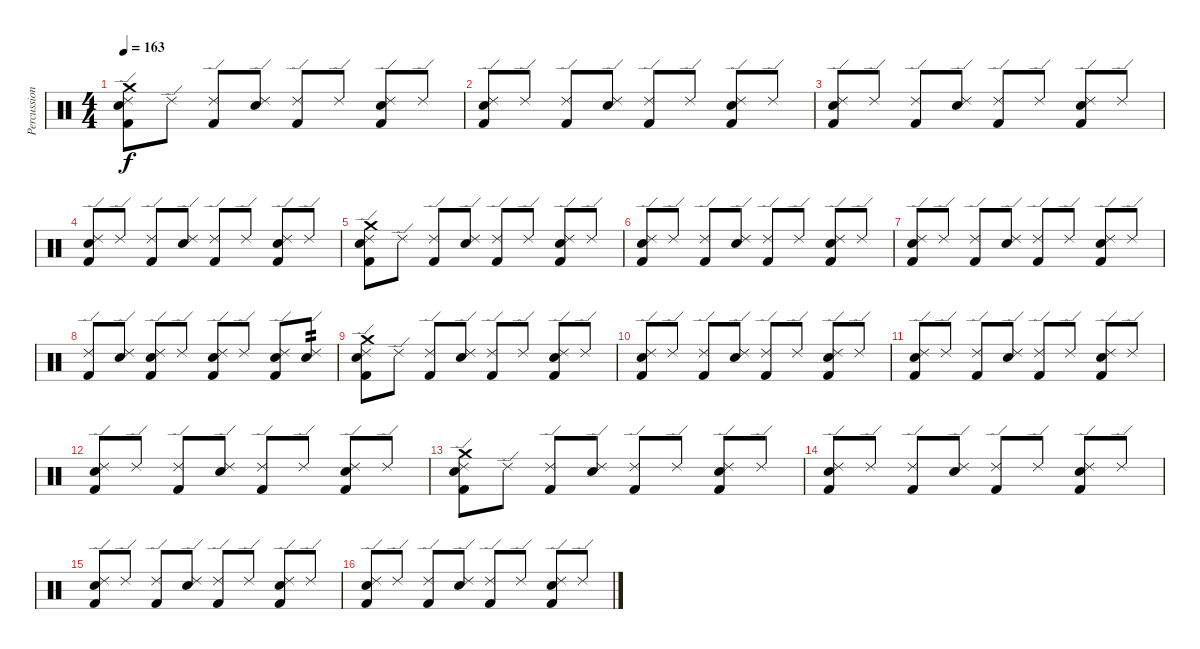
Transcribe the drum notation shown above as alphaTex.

\track ("Percussion" "Percussion") {instrument percussion}
\staff {score}
\articulation defaults
\ts (4 4)
\tempo 163
\clef neutral
\ks c
("Crash medium (hit)" "Ride (edge) 2" "Snare (hit) 2" "Kick (hit) 2").8{dy f} "Ride (edge) 2".8 ("Ride (edge) 2" "Kick (hit) 2").8 ("Ride (edge) 2" "Snare (hit) 2").8 ("Ride (edge) 2" "Kick (hit) 2").8 "Ride (edge) 2".8 ("Ride (edge) 2" "Snare (hit) 2" "Kick (hit) 2").8 "Ride (edge) 2".8 |
("Ride (edge) 2" "Snare (hit) 2" "Kick (hit) 2").8 "Ride (edge) 2".8 ("Ride (edge) 2" "Kick (hit) 2").8 ("Ride (edge) 2" "Snare (hit) 2").8 ("Ride (edge) 2" "Kick (hit) 2").8 "Ride (edge) 2".8 ("Ride (edge) 2" "Snare (hit) 2" "Kick (hit) 2").8 "Ride (edge) 2".8 |
("Ride (edge) 2" "Snare (hit) 2" "Kick (hit) 2").8 "Ride (edge) 2".8 ("Ride (edge) 2" "Kick (hit) 2").8 ("Ride (edge) 2" "Snare (hit) 2").8 ("Ride (edge) 2" "Kick (hit) 2").8 "Ride (edge) 2".8 ("Ride (edge) 2" "Snare (hit) 2" "Kick (hit) 2").8 "Ride (edge) 2".8 |
("Ride (edge) 2" "Snare (hit) 2" "Kick (hit) 2").8 "Ride (edge) 2".8 ("Ride (edge) 2" "Kick (hit) 2").8 ("Ride (edge) 2" "Snare (hit) 2").8 ("Ride (edge) 2" "Kick (hit) 2").8 "Ride (edge) 2".8 ("Ride (edge) 2" "Snare (hit) 2" "Kick (hit) 2").8 "Ride (edge) 2".8 |
("Crash medium (hit)" "Ride (edge) 2" "Snare (hit) 2" "Kick (hit) 2").8 "Ride (edge) 2".8 ("Ride (edge) 2" "Kick (hit) 2").8 ("Ride (edge) 2" "Snare (hit) 2").8 ("Ride (edge) 2" "Kick (hit) 2").8 "Ride (edge) 2".8 ("Ride (edge) 2" "Snare (hit) 2" "Kick (hit) 2").8 "Ride (edge) 2".8 |
("Ride (edge) 2" "Snare (hit) 2" "Kick (hit) 2").8 "Ride (edge) 2".8 ("Ride (edge) 2" "Kick (hit) 2").8 ("Ride (edge) 2" "Snare (hit) 2").8 ("Ride (edge) 2" "Kick (hit) 2").8 "Ride (edge) 2".8 ("Ride (edge) 2" "Snare (hit) 2" "Kick (hit) 2").8 "Ride (edge) 2".8 |
("Ride (edge) 2" "Snare (hit) 2" "Kick (hit) 2").8 "Ride (edge) 2".8 ("Ride (edge) 2" "Kick (hit) 2").8 ("Ride (edge) 2" "Snare (hit) 2").8 ("Ride (edge) 2" "Kick (hit) 2").8 "Ride (edge) 2".8 ("Ride (edge) 2" "Snare (hit) 2" "Kick (hit) 2").8 "Ride (edge) 2".8 |
("Ride (edge) 2" "Kick (hit) 2").8 ("Ride (edge) 2" "Snare (hit) 2").8 ("Ride (edge) 2" "Snare (hit) 2" "Kick (hit) 2").8 "Ride (edge) 2".8 ("Ride (edge) 2" "Snare (hit) 2" "Kick (hit) 2").8 "Ride (edge) 2".8 ("Ride (edge) 2" "Snare (hit) 2" "Kick (hit) 2").8 ("Ride (edge) 2" "Snare (hit) 2").8{tp 2} |
("Crash medium (hit)" "Ride (edge) 2" "Snare (hit) 2" "Kick (hit) 2").8 "Ride (edge) 2".8 ("Ride (edge) 2" "Kick (hit) 2").8 ("Ride (edge) 2" "Snare (hit) 2").8 ("Ride (edge) 2" "Kick (hit) 2").8 "Ride (edge) 2".8 ("Ride (edge) 2" "Snare (hit) 2" "Kick (hit) 2").8 "Ride (edge) 2".8 |
("Ride (edge) 2" "Snare (hit) 2" "Kick (hit) 2").8 "Ride (edge) 2".8 ("Ride (edge) 2" "Kick (hit) 2").8 ("Ride (edge) 2" "Snare (hit) 2").8 ("Ride (edge) 2" "Kick (hit) 2").8 "Ride (edge) 2".8 ("Ride (edge) 2" "Snare (hit) 2" "Kick (hit) 2").8 "Ride (edge) 2".8 |
("Ride (edge) 2" "Snare (hit) 2" "Kick (hit) 2").8 "Ride (edge) 2".8 ("Ride (edge) 2" "Kick (hit) 2").8 ("Ride (edge) 2" "Snare (hit) 2").8 ("Ride (edge) 2" "Kick (hit) 2").8 "Ride (edge) 2".8 ("Ride (edge) 2" "Snare (hit) 2" "Kick (hit) 2").8 "Ride (edge) 2".8 |
("Ride (edge) 2" "Snare (hit) 2" "Kick (hit) 2").8 "Ride (edge) 2".8 ("Ride (edge) 2" "Kick (hit) 2").8 ("Ride (edge) 2" "Snare (hit) 2").8 ("Ride (edge) 2" "Kick (hit) 2").8 "Ride (edge) 2".8 ("Ride (edge) 2" "Snare (hit) 2" "Kick (hit) 2").8 "Ride (edge) 2".8 |
("Crash medium (hit)" "Ride (edge) 2" "Snare (hit) 2" "Kick (hit) 2").8 "Ride (edge) 2".8 ("Ride (edge) 2" "Kick (hit) 2").8 ("Ride (edge) 2" "Snare (hit) 2").8 ("Ride (edge) 2" "Kick (hit) 2").8 "Ride (edge) 2".8 ("Ride (edge) 2" "Snare (hit) 2" "Kick (hit) 2").8 "Ride (edge) 2".8 |
("Ride (edge) 2" "Snare (hit) 2" "Kick (hit) 2").8 "Ride (edge) 2".8 ("Ride (edge) 2" "Kick (hit) 2").8 ("Ride (edge) 2" "Snare (hit) 2").8 ("Ride (edge) 2" "Kick (hit) 2").8 "Ride (edge) 2".8 ("Ride (edge) 2" "Snare (hit) 2" "Kick (hit) 2").8 "Ride (edge) 2".8 |
("Ride (edge) 2" "Snare (hit) 2" "Kick (hit) 2").8 "Ride (edge) 2".8 ("Ride (edge) 2" "Kick (hit) 2").8 ("Ride (edge) 2" "Snare (hit) 2").8 ("Ride (edge) 2" "Kick (hit) 2").8 "Ride (edge) 2".8 ("Ride (edge) 2" "Snare (hit) 2" "Kick (hit) 2").8 "Ride (edge) 2".8 |
("Ride (edge) 2" "Snare (hit) 2" "Kick (hit) 2").8 "Ride (edge) 2".8 ("Ride (edge) 2" "Kick (hit) 2").8 ("Ride (edge) 2" "Snare (hit) 2").8 ("Ride (edge) 2" "Kick (hit) 2").8 "Ride (edge) 2".8 ("Ride (edge) 2" "Snare (hit) 2" "Kick (hit) 2").8 "Ride (edge) 2".8
